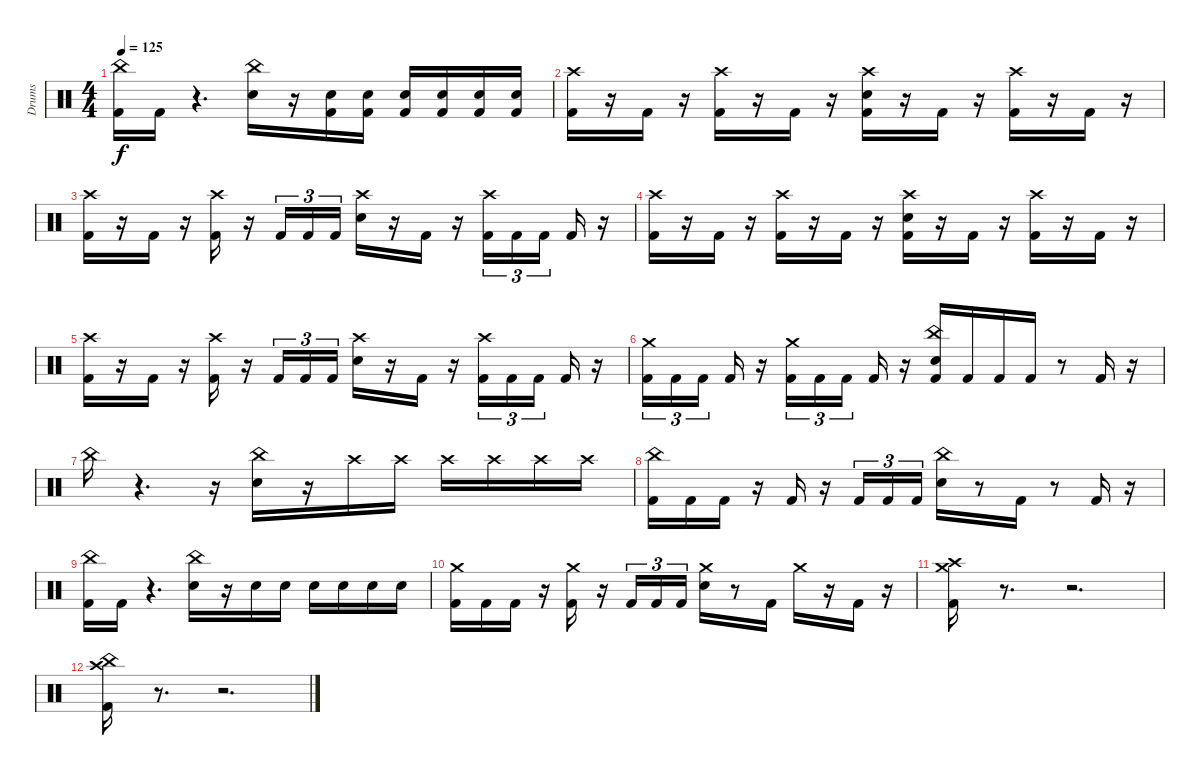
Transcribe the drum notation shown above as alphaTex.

\track ("Drums" "Drums") {instrument percussion}
\staff {score}
\articulation defaults
\ts (4 4)
\tempo 125
\clef neutral
\ks c
("Kick (hit) 2" "China (hit)").16{dy f} "Kick (hit) 2".16 r.4{d} ("Snare (hit) 2" "China (hit)").16 r.16 ("Kick (hit) 2" "Snare (hit) 2").16 ("Kick (hit) 2" "Snare (hit) 2").16 ("Kick (hit) 2" "Snare (hit) 2").16 ("Kick (hit) 2" "Snare (hit) 2").16 ("Kick (hit) 2" "Snare (hit) 2").16 ("Kick (hit) 2" "Snare (hit) 2").16 |
("Kick (hit) 2" "Crash high (hit)").16 r.16 "Kick (hit) 2".16 r.16 ("Kick (hit) 2" "Crash high (hit)").16 r.16 "Kick (hit) 2".16 r.16 ("Kick (hit) 2" "Snare (hit) 2" "Crash high (hit)").16 r.16 "Kick (hit) 2".16 r.16 ("Kick (hit) 2" "Crash high (hit)").16 r.16 "Kick (hit) 2".16 r.16 |
("Kick (hit) 2" "Crash high (hit)").16 r.16 "Kick (hit) 2".16 r.16 ("Kick (hit) 2" "Crash high (hit)").16 r.16 "Kick (hit) 2".16{tu (3 2)} "Kick (hit) 2".16{tu (3 2)} "Kick (hit) 2".16{tu (3 2)} ("Snare (hit) 2" "Crash high (hit)").16 r.16 "Kick (hit) 2".16 r.16 ("Kick (hit) 2" "Crash high (hit)").16{tu (3 2)} "Kick (hit) 2".16{tu (3 2)} "Kick (hit) 2".16{tu (3 2) beam splitsecondary} "Kick (hit) 2".16 r.16 |
("Kick (hit) 2" "Crash high (hit)").16 r.16 "Kick (hit) 2".16 r.16 ("Kick (hit) 2" "Crash high (hit)").16 r.16 "Kick (hit) 2".16 r.16 ("Kick (hit) 2" "Snare (hit) 2" "Crash high (hit)").16 r.16 "Kick (hit) 2".16 r.16 ("Kick (hit) 2" "Crash high (hit)").16 r.16 "Kick (hit) 2".16 r.16 |
("Kick (hit) 2" "Crash high (hit)").16 r.16 "Kick (hit) 2".16 r.16 ("Kick (hit) 2" "Crash high (hit)").16 r.16 "Kick (hit) 2".16{tu (3 2)} "Kick (hit) 2".16{tu (3 2)} "Kick (hit) 2".16{tu (3 2)} ("Snare (hit) 2" "Crash high (hit)").16 r.16 "Kick (hit) 2".16 r.16 ("Kick (hit) 2" "Crash high (hit)").16{tu (3 2)} "Kick (hit) 2".16{tu (3 2)} "Kick (hit) 2".16{tu (3 2) beam splitsecondary} "Kick (hit) 2".16 r.16 |
("Kick (hit) 2" "Crash medium (hit)").16{tu (3 2)} "Kick (hit) 2".16{tu (3 2)} "Kick (hit) 2".16{tu (3 2) beam splitsecondary} "Kick (hit) 2".16 r.16 ("Kick (hit) 2" "Crash medium (hit)").16{tu (3 2)} "Kick (hit) 2".16{tu (3 2)} "Kick (hit) 2".16{tu (3 2) beam splitsecondary} "Kick (hit) 2".16 r.16 ("Kick (hit) 2" "Snare (hit) 2" "China (hit)").16 "Kick (hit) 2".16 "Kick (hit) 2".16 "Kick (hit) 2".16 r.8 "Kick (hit) 2".16 r.16 |
"China (hit)".16 r.4{d} r.16 ("Snare (hit) 2" "China (hit)").16 r.16 "Crash high (hit)".16 "Crash high (hit)".16 "Crash high (hit)".16 "Crash high (hit)".16 "Crash high (hit)".16 "Crash high (hit)".16 |
("Kick (hit) 2" "China (hit)").16 "Kick (hit) 2".16 "Kick (hit) 2".16 r.16 "Kick (hit) 2".16 r.16 "Kick (hit) 2".16{tu (3 2)} "Kick (hit) 2".16{tu (3 2)} "Kick (hit) 2".16{tu (3 2)} ("Snare (hit) 2" "China (hit)").16 r.8 "Kick (hit) 2".16 r.8 "Kick (hit) 2".16 r.16 |
("Kick (hit) 2" "China (hit)").16 "Kick (hit) 2".16 r.4{d} ("Snare (hit) 2" "China (hit)").16 r.16 "Snare (hit) 2".16 "Snare (hit) 2".16 "Snare (hit) 2".16 "Snare (hit) 2".16 "Snare (hit) 2".16 "Snare (hit) 2".16 |
("Kick (hit) 2" "Crash medium (hit)").16 "Kick (hit) 2".16 "Kick (hit) 2".16 r.16 ("Kick (hit) 2" "Crash medium (hit)").16 r.16 "Kick (hit) 2".16{tu (3 2)} "Kick (hit) 2".16{tu (3 2)} "Kick (hit) 2".16{tu (3 2)} ("Snare (hit) 2" "Crash medium (hit)").16 r.8 "Kick (hit) 2".16 "Crash medium (hit)".16 r.16 "Kick (hit) 2".16 r.16 |
("Kick (hit) 2" "Crash high (hit)" "Crash medium (hit)").16 r.8{d} r.2{d} |
("Kick (hit) 2" "Crash high (hit)" "China (hit)").16 r.8{d} r.2{d}
